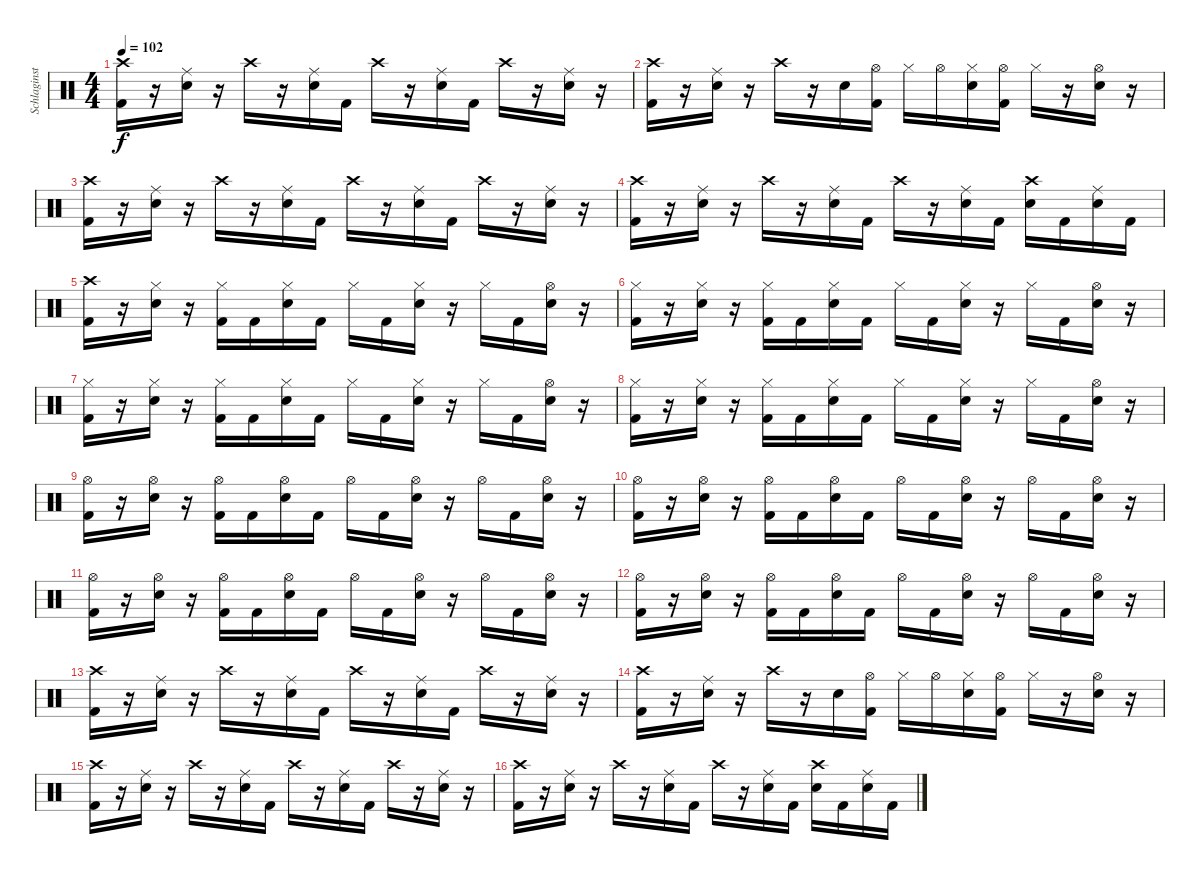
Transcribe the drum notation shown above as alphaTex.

\track ("Schlaginstrumente - Auswahl" "Schlaginst") {instrument percussion}
\staff {score}
\articulation defaults
\ts (4 4)
\tempo 102
\clef neutral
\ks c
("Crash high (hit)" "Kick (hit) 2").16{dy f} r.16 ("Ride (middle)" "Snare (hit) 2").16 r.16 "Crash high (hit)".16 r.16 ("Ride (middle)" "Snare (hit) 2").16 "Kick (hit) 2".16 "Crash high (hit)".16 r.16 ("Ride (middle)" "Snare (hit) 2").16 "Kick (hit) 2".16 "Crash high (hit)".16 r.16 ("Ride (middle)" "Snare (hit) 2").16 r.16 |
("Crash high (hit)" "Kick (hit) 2").16 r.16 ("Ride (middle)" "Snare (hit) 2").16 r.16 "Crash high (hit)".16 r.16 "Snare (hit) 2".16 ("Hi-Hat (open)" "Kick (hit) 2").16 "Hi-Hat (closed)".16 "Hi-Hat (open)".16 ("Hi-Hat (closed)" "Snare (hit) 2").16 ("Hi-Hat (open)" "Kick (hit) 2").16 "Hi-Hat (closed)".16 r.16 ("Hi-Hat (open)" "Snare (hit) 2").16 r.16 |
("Crash high (hit)" "Kick (hit) 2").16 r.16 ("Ride (middle)" "Snare (hit) 2").16 r.16 "Crash high (hit)".16 r.16 ("Ride (middle)" "Snare (hit) 2").16 "Kick (hit) 2".16 "Crash high (hit)".16 r.16 ("Ride (middle)" "Snare (hit) 2").16 "Kick (hit) 2".16 "Crash high (hit)".16 r.16 ("Ride (middle)" "Snare (hit) 2").16 r.16 |
("Crash high (hit)" "Kick (hit) 2").16 r.16 ("Ride (middle)" "Snare (hit) 2").16 r.16 "Crash high (hit)".16 r.16 ("Ride (middle)" "Snare (hit) 2").16 "Kick (hit) 2".16 "Crash high (hit)".16 r.16 ("Ride (middle)" "Snare (hit) 2").16 "Kick (hit) 2".16 ("Crash high (hit)" "Snare (hit) 2").16 "Kick (hit) 2".16 ("Ride (middle)" "Snare (hit) 2").16 "Kick (hit) 2".16 |
("Crash high (hit)" "Kick (hit) 2").16 r.16 ("Hi-Hat (closed)" "Snare (hit) 2").16 r.16 ("Hi-Hat (closed)" "Kick (hit) 2").16 "Kick (hit) 2".16 ("Hi-Hat (closed)" "Snare (hit) 2").16 "Kick (hit) 2".16 "Hi-Hat (closed)".16 "Kick (hit) 2".16 ("Hi-Hat (closed)" "Snare (hit) 2").16 r.16 "Hi-Hat (closed)".16 "Kick (hit) 2".16 ("Hi-Hat (open)" "Snare (hit) 2").16 r.16 |
("Hi-Hat (closed)" "Kick (hit) 2").16 r.16 ("Hi-Hat (closed)" "Snare (hit) 2").16 r.16 ("Hi-Hat (closed)" "Kick (hit) 2").16 "Kick (hit) 2".16 ("Hi-Hat (closed)" "Snare (hit) 2").16 "Kick (hit) 2".16 "Hi-Hat (closed)".16 "Kick (hit) 2".16 ("Hi-Hat (closed)" "Snare (hit) 2").16 r.16 "Hi-Hat (closed)".16 "Kick (hit) 2".16 ("Hi-Hat (open)" "Snare (hit) 2").16 r.16 |
("Hi-Hat (closed)" "Kick (hit) 2").16 r.16 ("Hi-Hat (closed)" "Snare (hit) 2").16 r.16 ("Hi-Hat (closed)" "Kick (hit) 2").16 "Kick (hit) 2".16 ("Hi-Hat (closed)" "Snare (hit) 2").16 "Kick (hit) 2".16 "Hi-Hat (closed)".16 "Kick (hit) 2".16 ("Hi-Hat (closed)" "Snare (hit) 2").16 r.16 "Hi-Hat (closed)".16 "Kick (hit) 2".16 ("Hi-Hat (open)" "Snare (hit) 2").16 r.16 |
("Hi-Hat (closed)" "Kick (hit) 2").16 r.16 ("Hi-Hat (closed)" "Snare (hit) 2").16 r.16 ("Hi-Hat (closed)" "Kick (hit) 2").16 "Kick (hit) 2".16 ("Hi-Hat (closed)" "Snare (hit) 2").16 "Kick (hit) 2".16 "Hi-Hat (closed)".16 "Kick (hit) 2".16 ("Hi-Hat (closed)" "Snare (hit) 2").16 r.16 "Hi-Hat (closed)".16 "Kick (hit) 2".16 ("Hi-Hat (open)" "Snare (hit) 2").16 r.16 |
("Hi-Hat (open)" "Kick (hit) 2").16 r.16 ("Hi-Hat (open)" "Snare (hit) 2").16 r.16 ("Hi-Hat (open)" "Kick (hit) 2").16 "Kick (hit) 2".16 ("Hi-Hat (open)" "Snare (hit) 2").16 "Kick (hit) 2".16 "Hi-Hat (open)".16 "Kick (hit) 2".16 ("Hi-Hat (open)" "Snare (hit) 2").16 r.16 "Hi-Hat (open)".16 "Kick (hit) 2".16 ("Hi-Hat (open)" "Snare (hit) 2").16 r.16 |
("Hi-Hat (open)" "Kick (hit) 2").16 r.16 ("Hi-Hat (open)" "Snare (hit) 2").16 r.16 ("Hi-Hat (open)" "Kick (hit) 2").16 "Kick (hit) 2".16 ("Hi-Hat (open)" "Snare (hit) 2").16 "Kick (hit) 2".16 "Hi-Hat (open)".16 "Kick (hit) 2".16 ("Hi-Hat (open)" "Snare (hit) 2").16 r.16 "Hi-Hat (open)".16 "Kick (hit) 2".16 ("Hi-Hat (open)" "Snare (hit) 2").16 r.16 |
("Hi-Hat (open)" "Kick (hit) 2").16 r.16 ("Hi-Hat (open)" "Snare (hit) 2").16 r.16 ("Hi-Hat (open)" "Kick (hit) 2").16 "Kick (hit) 2".16 ("Hi-Hat (open)" "Snare (hit) 2").16 "Kick (hit) 2".16 "Hi-Hat (open)".16 "Kick (hit) 2".16 ("Hi-Hat (open)" "Snare (hit) 2").16 r.16 "Hi-Hat (open)".16 "Kick (hit) 2".16 ("Hi-Hat (open)" "Snare (hit) 2").16 r.16 |
("Hi-Hat (open)" "Kick (hit) 2").16 r.16 ("Hi-Hat (open)" "Snare (hit) 2").16 r.16 ("Hi-Hat (open)" "Kick (hit) 2").16 "Kick (hit) 2".16 ("Hi-Hat (open)" "Snare (hit) 2").16 "Kick (hit) 2".16 "Hi-Hat (open)".16 "Kick (hit) 2".16 ("Hi-Hat (open)" "Snare (hit) 2").16 r.16 "Hi-Hat (open)".16 "Kick (hit) 2".16 ("Hi-Hat (open)" "Snare (hit) 2").16 r.16 |
("Crash high (hit)" "Kick (hit) 2").16 r.16 ("Ride (middle)" "Snare (hit) 2").16 r.16 "Crash high (hit)".16 r.16 ("Ride (middle)" "Snare (hit) 2").16 "Kick (hit) 2".16 "Crash high (hit)".16 r.16 ("Ride (middle)" "Snare (hit) 2").16 "Kick (hit) 2".16 "Crash high (hit)".16 r.16 ("Ride (middle)" "Snare (hit) 2").16 r.16 |
("Crash high (hit)" "Kick (hit) 2").16 r.16 ("Ride (middle)" "Snare (hit) 2").16 r.16 "Crash high (hit)".16 r.16 "Snare (hit) 2".16 ("Hi-Hat (open)" "Kick (hit) 2").16 "Hi-Hat (closed)".16 "Hi-Hat (open)".16 ("Hi-Hat (closed)" "Snare (hit) 2").16 ("Hi-Hat (open)" "Kick (hit) 2").16 "Hi-Hat (closed)".16 r.16 ("Hi-Hat (open)" "Snare (hit) 2").16 r.16 |
("Crash high (hit)" "Kick (hit) 2").16 r.16 ("Ride (middle)" "Snare (hit) 2").16 r.16 "Crash high (hit)".16 r.16 ("Ride (middle)" "Snare (hit) 2").16 "Kick (hit) 2".16 "Crash high (hit)".16 r.16 ("Ride (middle)" "Snare (hit) 2").16 "Kick (hit) 2".16 "Crash high (hit)".16 r.16 ("Ride (middle)" "Snare (hit) 2").16 r.16 |
("Crash high (hit)" "Kick (hit) 2").16 r.16 ("Ride (middle)" "Snare (hit) 2").16 r.16 "Crash high (hit)".16 r.16 ("Ride (middle)" "Snare (hit) 2").16 "Kick (hit) 2".16 "Crash high (hit)".16 r.16 ("Ride (middle)" "Snare (hit) 2").16 "Kick (hit) 2".16 ("Crash high (hit)" "Snare (hit) 2").16 "Kick (hit) 2".16 ("Ride (middle)" "Snare (hit) 2").16 "Kick (hit) 2".16
